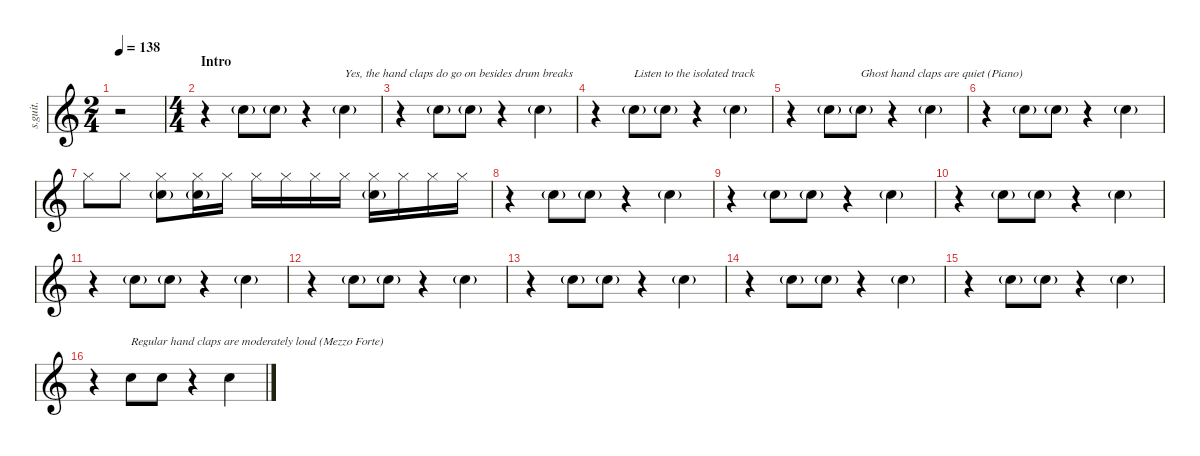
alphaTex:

\defaultSystemsLayout 4
\hideDynamics
\bracketExtendMode nobrackets
\track ("Hand Claps" "s.guit.") {instrument percussion}
\staff {score}
\articulation defaults
\ts (2 4)
\beaming (8 2 2 2 2)
\tempo 138
\clef g2
\ks c
r.2{dy fff} |
\ts (4 4)
\beaming (8 2 2 2 2)
\section ("" "Intro")
r.4 "Hand Clap (hit)"{g}.8 "Hand Clap (hit)"{g}.8 r.4 "Hand Clap (hit)"{g}.4{txt "Yes, the hand claps do go on besides drum breaks"} |
r.4 "Hand Clap (hit)"{g}.8 "Hand Clap (hit)"{g}.8 r.4 "Hand Clap (hit)"{g}.4 |
r.4 "Hand Clap (hit)"{g}.8{txt "Listen to the isolated track"} "Hand Clap (hit)"{g}.8 r.4 "Hand Clap (hit)"{g}.4 |
r.4 "Hand Clap (hit)"{g}.8 "Hand Clap (hit)"{g}.8{txt "Ghost hand claps are quiet (Piano)"} r.4 "Hand Clap (hit)"{g}.4 |
r.4 "Hand Clap (hit)"{g}.8 "Hand Clap (hit)"{g}.8 r.4 "Hand Clap (hit)"{g}.4 |
"Hi-Hat (closed)".8 "Hi-Hat (closed)".8 ("Hi-Hat (closed)" "Hand Clap (hit)"{g}).8 ("Hi-Hat (closed)" "Hand Clap (hit)"{g}).16 "Hi-Hat (closed)".16 "Hi-Hat (closed)".16 "Hi-Hat (closed)".16 "Hi-Hat (closed)".16 "Hi-Hat (closed)".16 ("Hi-Hat (closed)" "Hand Clap (hit)"{g}).16 "Hi-Hat (closed)".16 "Hi-Hat (closed)".16 "Hi-Hat (closed)".16 |
r.4 "Hand Clap (hit)"{g}.8 "Hand Clap (hit)"{g}.8 r.4 "Hand Clap (hit)"{g}.4 |
r.4 "Hand Clap (hit)"{g}.8 "Hand Clap (hit)"{g}.8 r.4 "Hand Clap (hit)"{g}.4 |
r.4 "Hand Clap (hit)"{g}.8 "Hand Clap (hit)"{g}.8 r.4 "Hand Clap (hit)"{g}.4 |
r.4 "Hand Clap (hit)"{g}.8 "Hand Clap (hit)"{g}.8 r.4 "Hand Clap (hit)"{g}.4 |
r.4 "Hand Clap (hit)"{g}.8 "Hand Clap (hit)"{g}.8 r.4 "Hand Clap (hit)"{g}.4 |
r.4 "Hand Clap (hit)"{g}.8 "Hand Clap (hit)"{g}.8 r.4 "Hand Clap (hit)"{g}.4 |
r.4 "Hand Clap (hit)"{g}.8 "Hand Clap (hit)"{g}.8 r.4 "Hand Clap (hit)"{g}.4 |
r.4 "Hand Clap (hit)"{g}.8 "Hand Clap (hit)"{g}.8 r.4 "Hand Clap (hit)"{g}.4 |
r.4 "Hand Clap (hit)".8{txt "Regular hand claps are moderately loud (Mezzo Forte)"} "Hand Clap (hit)".8 r.4 "Hand Clap (hit)".4
